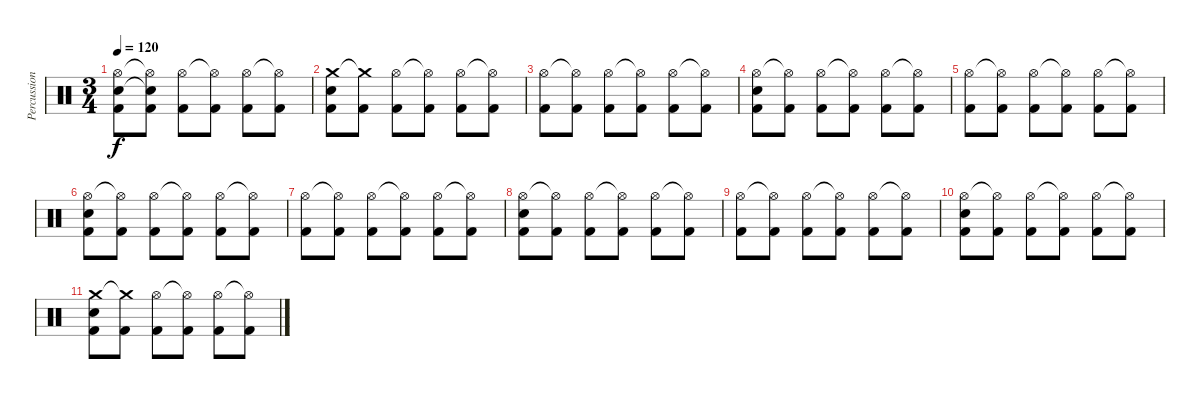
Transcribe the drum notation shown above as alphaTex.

\track ("Percussion" "Percussion") {instrument percussion}
\staff {score}
\articulation defaults
\ts (3 4)
\tempo 120
\clef neutral
\ks c
("Hi-Hat (open)" "Electric Snare (hit)" "Kick (hit) 2").8{dy f} ("Hi-Hat (open)"{t} "Electric Snare (hit)"{t} "Kick (hit) 2").8 ("Hi-Hat (open)" "Kick (hit) 2").8 ("Hi-Hat (open)"{t} "Kick (hit) 2").8 ("Hi-Hat (open)" "Kick (hit) 2").8 ("Hi-Hat (open)"{t} "Kick (hit) 2").8 |
("Crash medium (hit)" "Electric Snare (hit)" "Kick (hit) 2").8 ("Crash medium (hit)"{t} "Kick (hit) 2").8 ("Hi-Hat (open)" "Kick (hit) 2").8 ("Hi-Hat (open)"{t} "Kick (hit) 2").8 ("Hi-Hat (open)" "Kick (hit) 2").8 ("Hi-Hat (open)"{t} "Kick (hit) 2").8 |
("Hi-Hat (open)" "Kick (hit) 2").8 ("Hi-Hat (open)"{t} "Kick (hit) 2").8 ("Hi-Hat (open)" "Kick (hit) 2").8 ("Hi-Hat (open)"{t} "Kick (hit) 2").8 ("Hi-Hat (open)" "Kick (hit) 2").8 ("Hi-Hat (open)"{t} "Kick (hit) 2").8 |
("Hi-Hat (open)" "Electric Snare (hit)" "Kick (hit) 2").8 ("Hi-Hat (open)"{t} "Kick (hit) 2").8 ("Hi-Hat (open)" "Kick (hit) 2").8 ("Hi-Hat (open)"{t} "Kick (hit) 2").8 ("Hi-Hat (open)" "Kick (hit) 2").8 ("Hi-Hat (open)"{t} "Kick (hit) 2").8 |
("Hi-Hat (open)" "Kick (hit) 2").8 ("Hi-Hat (open)"{t} "Kick (hit) 2").8 ("Hi-Hat (open)" "Kick (hit) 2").8 ("Hi-Hat (open)"{t} "Kick (hit) 2").8 ("Hi-Hat (open)" "Kick (hit) 2").8 ("Hi-Hat (open)"{t} "Kick (hit) 2").8 |
("Hi-Hat (open)" "Electric Snare (hit)" "Kick (hit) 2").8 ("Hi-Hat (open)"{t} "Kick (hit) 2").8 ("Hi-Hat (open)" "Kick (hit) 2").8 ("Hi-Hat (open)"{t} "Kick (hit) 2").8 ("Hi-Hat (open)" "Kick (hit) 2").8 ("Hi-Hat (open)"{t} "Kick (hit) 2").8 |
("Hi-Hat (open)" "Kick (hit) 2").8 ("Hi-Hat (open)"{t} "Kick (hit) 2").8 ("Hi-Hat (open)" "Kick (hit) 2").8 ("Hi-Hat (open)"{t} "Kick (hit) 2").8 ("Hi-Hat (open)" "Kick (hit) 2").8 ("Hi-Hat (open)"{t} "Kick (hit) 2").8 |
("Hi-Hat (open)" "Electric Snare (hit)" "Kick (hit) 2").8 ("Hi-Hat (open)"{t} "Kick (hit) 2").8 ("Hi-Hat (open)" "Kick (hit) 2").8 ("Hi-Hat (open)"{t} "Kick (hit) 2").8 ("Hi-Hat (open)" "Kick (hit) 2").8 ("Hi-Hat (open)"{t} "Kick (hit) 2").8 |
("Hi-Hat (open)" "Kick (hit) 2").8 ("Hi-Hat (open)"{t} "Kick (hit) 2").8 ("Hi-Hat (open)" "Kick (hit) 2").8 ("Hi-Hat (open)"{t} "Kick (hit) 2").8 ("Hi-Hat (open)" "Kick (hit) 2").8 ("Hi-Hat (open)"{t} "Kick (hit) 2").8 |
("Hi-Hat (open)" "Electric Snare (hit)" "Kick (hit) 2").8 ("Hi-Hat (open)"{t} "Kick (hit) 2").8 ("Hi-Hat (open)" "Kick (hit) 2").8 ("Hi-Hat (open)"{t} "Kick (hit) 2").8 ("Hi-Hat (open)" "Kick (hit) 2").8 ("Hi-Hat (open)"{t} "Kick (hit) 2").8 |
("Crash medium (hit)" "Electric Snare (hit)" "Kick (hit) 2").8 ("Crash medium (hit)"{t} "Kick (hit) 2").8 ("Hi-Hat (open)" "Kick (hit) 2").8 ("Hi-Hat (open)"{t} "Kick (hit) 2").8 ("Hi-Hat (open)" "Kick (hit) 2").8 ("Hi-Hat (open)"{t} "Kick (hit) 2").8
